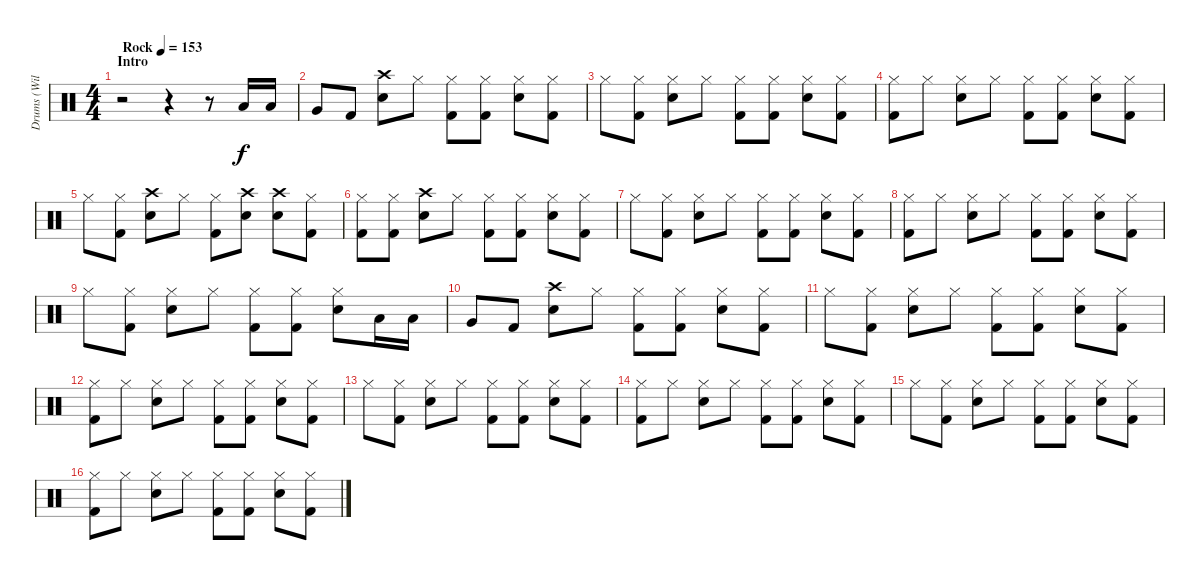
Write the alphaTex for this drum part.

\track ("Drums (Williams)" "Drums (Wil") {instrument percussion}
\staff {score}
\articulation defaults
\ts (4 4)
\section ("" "Intro")
\tempo (153 "Rock")
\clef neutral
\ks c
r.2{dy f} r.4 r.8 "Low Tom (hit)".16 "Low Tom (hit)".16 |
"Very Low Tom (hit)".8 "Kick (hit) 2".8 ("Crash high (hit)" "Electric Snare (hit)").8 "Hi-Hat (closed)".8 ("Hi-Hat (closed)" "Kick (hit) 2").8 ("Hi-Hat (closed)" "Kick (hit) 2").8 ("Hi-Hat (closed)" "Electric Snare (hit)").8 ("Hi-Hat (closed)" "Kick (hit) 2").8 |
"Hi-Hat (closed)".8 ("Hi-Hat (closed)" "Kick (hit) 2").8 ("Hi-Hat (closed)" "Electric Snare (hit)").8 "Hi-Hat (closed)".8 ("Hi-Hat (closed)" "Kick (hit) 2").8 ("Hi-Hat (closed)" "Kick (hit) 2").8 ("Hi-Hat (closed)" "Electric Snare (hit)").8 ("Hi-Hat (closed)" "Kick (hit) 2").8 |
("Hi-Hat (closed)" "Kick (hit) 2").8 "Hi-Hat (closed)".8 ("Hi-Hat (closed)" "Electric Snare (hit)").8 "Hi-Hat (closed)".8 ("Hi-Hat (closed)" "Kick (hit) 2").8 ("Hi-Hat (closed)" "Kick (hit) 2").8 ("Hi-Hat (closed)" "Electric Snare (hit)").8 ("Hi-Hat (closed)" "Kick (hit) 2").8 |
"Hi-Hat (closed)".8 ("Hi-Hat (closed)" "Kick (hit) 2").8 ("Crash high (hit)" "Electric Snare (hit)").8 "Hi-Hat (closed)".8 ("Hi-Hat (closed)" "Kick (hit) 2").8 ("Crash high (hit)" "Electric Snare (hit)").8 ("Crash high (hit)" "Electric Snare (hit)").8 ("Hi-Hat (closed)" "Kick (hit) 2").8 |
("Hi-Hat (closed)" "Kick (hit) 2").8 ("Hi-Hat (closed)" "Kick (hit) 2").8 ("Crash high (hit)" "Electric Snare (hit)").8 "Hi-Hat (closed)".8 ("Hi-Hat (closed)" "Kick (hit) 2").8 ("Hi-Hat (closed)" "Kick (hit) 2").8 ("Hi-Hat (closed)" "Electric Snare (hit)").8 ("Hi-Hat (closed)" "Kick (hit) 2").8 |
"Hi-Hat (closed)".8 ("Hi-Hat (closed)" "Kick (hit) 2").8 ("Hi-Hat (closed)" "Electric Snare (hit)").8 "Hi-Hat (closed)".8 ("Hi-Hat (closed)" "Kick (hit) 2").8 ("Hi-Hat (closed)" "Kick (hit) 2").8 ("Hi-Hat (closed)" "Electric Snare (hit)").8 ("Hi-Hat (closed)" "Kick (hit) 2").8 |
("Hi-Hat (closed)" "Kick (hit) 2").8 "Hi-Hat (closed)".8 ("Hi-Hat (closed)" "Electric Snare (hit)").8 "Hi-Hat (closed)".8 ("Hi-Hat (closed)" "Kick (hit) 2").8 ("Hi-Hat (closed)" "Kick (hit) 2").8 ("Hi-Hat (closed)" "Electric Snare (hit)").8 ("Hi-Hat (closed)" "Kick (hit) 2").8 |
"Hi-Hat (closed)".8 ("Hi-Hat (closed)" "Kick (hit) 2").8 ("Hi-Hat (closed)" "Electric Snare (hit)").8 "Hi-Hat (closed)".8 ("Hi-Hat (closed)" "Kick (hit) 2").8 ("Hi-Hat (closed)" "Kick (hit) 2").8 ("Hi-Hat (closed)" "Electric Snare (hit)").8 "Low Tom (hit)".16 "Low Tom (hit)".16 |
"Very Low Tom (hit)".8 "Kick (hit) 2".8 ("Crash high (hit)" "Electric Snare (hit)").8 "Hi-Hat (closed)".8 ("Hi-Hat (closed)" "Kick (hit) 2").8 ("Hi-Hat (closed)" "Kick (hit) 2").8 ("Hi-Hat (closed)" "Electric Snare (hit)").8 ("Hi-Hat (closed)" "Kick (hit) 2").8 |
"Hi-Hat (closed)".8 ("Hi-Hat (closed)" "Kick (hit) 2").8 ("Hi-Hat (closed)" "Electric Snare (hit)").8 "Hi-Hat (closed)".8 ("Hi-Hat (closed)" "Kick (hit) 2").8 ("Hi-Hat (closed)" "Kick (hit) 2").8 ("Hi-Hat (closed)" "Electric Snare (hit)").8 ("Hi-Hat (closed)" "Kick (hit) 2").8 |
("Hi-Hat (closed)" "Kick (hit) 2").8 "Hi-Hat (closed)".8 ("Hi-Hat (closed)" "Electric Snare (hit)").8 "Hi-Hat (closed)".8 ("Hi-Hat (closed)" "Kick (hit) 2").8 ("Hi-Hat (closed)" "Kick (hit) 2").8 ("Hi-Hat (closed)" "Electric Snare (hit)").8 ("Hi-Hat (closed)" "Kick (hit) 2").8 |
"Hi-Hat (closed)".8 ("Hi-Hat (closed)" "Kick (hit) 2").8 ("Hi-Hat (closed)" "Electric Snare (hit)").8 "Hi-Hat (closed)".8 ("Hi-Hat (closed)" "Kick (hit) 2").8 ("Hi-Hat (closed)" "Kick (hit) 2").8 ("Hi-Hat (closed)" "Electric Snare (hit)").8 ("Hi-Hat (closed)" "Kick (hit) 2").8 |
("Hi-Hat (closed)" "Kick (hit) 2").8 "Hi-Hat (closed)".8 ("Hi-Hat (closed)" "Electric Snare (hit)").8 "Hi-Hat (closed)".8 ("Hi-Hat (closed)" "Kick (hit) 2").8 ("Hi-Hat (closed)" "Kick (hit) 2").8 ("Hi-Hat (closed)" "Electric Snare (hit)").8 ("Hi-Hat (closed)" "Kick (hit) 2").8 |
"Hi-Hat (closed)".8 ("Hi-Hat (closed)" "Kick (hit) 2").8 ("Hi-Hat (closed)" "Electric Snare (hit)").8 "Hi-Hat (closed)".8 ("Hi-Hat (closed)" "Kick (hit) 2").8 ("Hi-Hat (closed)" "Kick (hit) 2").8 ("Hi-Hat (closed)" "Electric Snare (hit)").8 ("Hi-Hat (closed)" "Kick (hit) 2").8 |
("Hi-Hat (closed)" "Kick (hit) 2").8 "Hi-Hat (closed)".8 ("Hi-Hat (closed)" "Electric Snare (hit)").8 "Hi-Hat (closed)".8 ("Hi-Hat (closed)" "Kick (hit) 2").8 ("Hi-Hat (closed)" "Kick (hit) 2").8 ("Hi-Hat (closed)" "Electric Snare (hit)").8 ("Hi-Hat (closed)" "Kick (hit) 2").8
